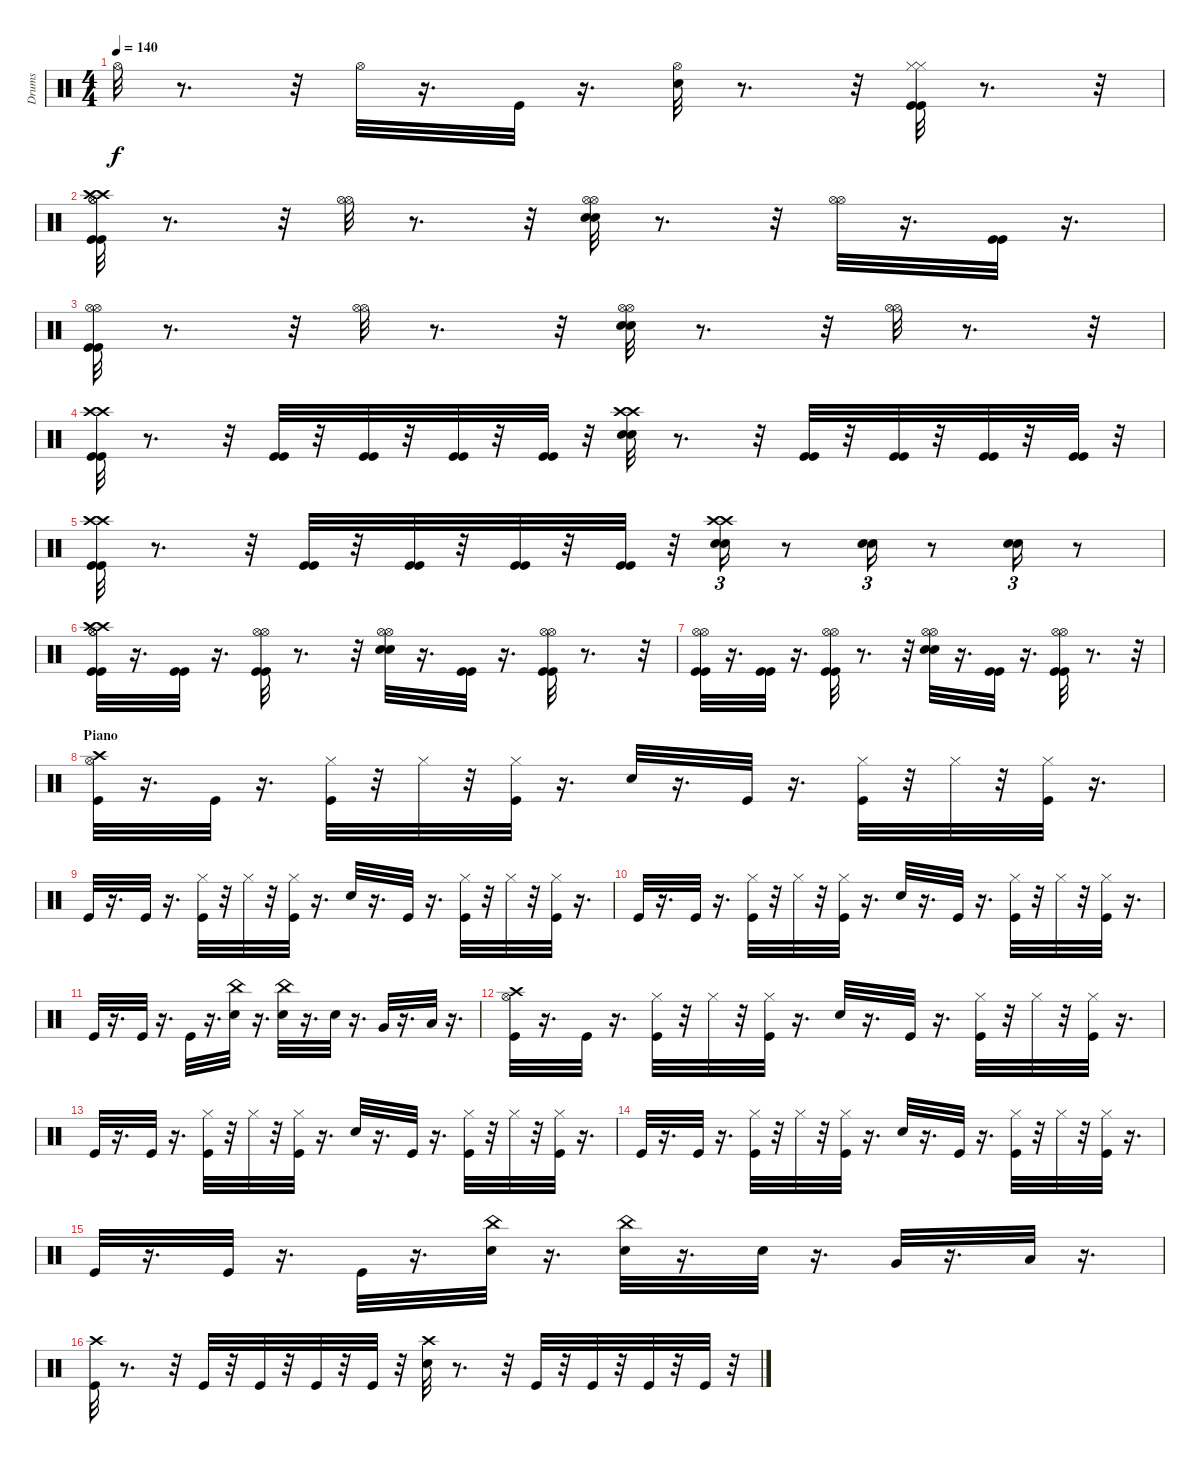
\track ("Drums" "Drums") {instrument percussion}
\staff {score}
\articulation defaults
\ts (4 4)
\tempo 140
\clef neutral
\ks c "Hi-Hat (open)".32{dy f}
r.8{d} r.32 "Hi-Hat (open)".32 r.16{d} "Kick (hit)".32 r.16{d} ("Hi-Hat (open)" "Electric Snare (hit)").32 r.8{d} r.32 ("Kick (hit)" "Hi-Hat (closed)" "Hi-Hat (closed)" "Kick (hit)").32 r.8{d} r.32 |
("Hi-Hat (open)" "Crash high (hit)" "Kick (hit)" "Hi-Hat (open)" "Crash high (hit)" "Kick (hit)").32 r.8{d} r.32 ("Hi-Hat (open)" "Hi-Hat (open)").32 r.8{d} r.32 ("Electric Snare (hit)" "Hi-Hat (open)" "Electric Snare (hit)" "Hi-Hat (open)").32 r.8{d} r.32 ("Hi-Hat (open)" "Hi-Hat (open)").32 r.16{d} ("Kick (hit)" "Kick (hit)").32 r.16{d} |
("Hi-Hat (open)" "Kick (hit)" "Hi-Hat (open)" "Kick (hit)").32 r.8{d} r.32 ("Hi-Hat (open)" "Hi-Hat (open)").32 r.8{d} r.32 ("Electric Snare (hit)" "Hi-Hat (open)" "Electric Snare (hit)" "Hi-Hat (open)").32 r.8{d} r.32 ("Hi-Hat (open)" "Hi-Hat (open)").32 r.8{d} r.32 |
("Crash high (hit)" "Kick (hit)" "Crash high (hit)" "Kick (hit)").32 r.8{d} r.32 ("Kick (hit)" "Kick (hit)").32 r.32 ("Kick (hit)" "Kick (hit)").32 r.32 ("Kick (hit)" "Kick (hit)").32 r.32 ("Kick (hit)" "Kick (hit)").32 r.32 ("Crash high (hit)" "Electric Snare (hit)" "Crash high (hit)" "Electric Snare (hit)").32 r.8{d} r.32 ("Kick (hit)" "Kick (hit)").32 r.32 ("Kick (hit)" "Kick (hit)").32 r.32 ("Kick (hit)" "Kick (hit)").32 r.32 ("Kick (hit)" "Kick (hit)").32 r.32 |
("Crash high (hit)" "Kick (hit)" "Crash high (hit)" "Kick (hit)").32 r.8{d} r.32 ("Kick (hit)" "Kick (hit)").32 r.32 ("Kick (hit)" "Kick (hit)").32 r.32 ("Kick (hit)" "Kick (hit)").32 r.32 ("Kick (hit)" "Kick (hit)").32 r.32 ("Crash high (hit)" "Electric Snare (hit)" "Crash high (hit)" "Electric Snare (hit)").16{tu (3 2)} r.8 ("Electric Snare (hit)" "Electric Snare (hit)").16{tu (3 2)} r.8 ("Electric Snare (hit)" "Electric Snare (hit)").16{tu (3 2)} r.8 |
("Hi-Hat (open)" "Crash high (hit)" "Kick (hit)" "Hi-Hat (open)" "Crash high (hit)" "Kick (hit)").32 r.16{d} ("Kick (hit)" "Kick (hit)").32 r.16{d} ("Hi-Hat (open)" "Kick (hit)" "Hi-Hat (open)" "Kick (hit)").32 r.8{d} r.32 ("Hi-Hat (open)" "Electric Snare (hit)" "Hi-Hat (open)" "Electric Snare (hit)").32 r.16{d} ("Kick (hit)" "Kick (hit)").32 r.16{d} ("Kick (hit)" "Hi-Hat (open)" "Kick (hit)" "Hi-Hat (open)").32 r.8{d} r.32 |
("Hi-Hat (open)" "Kick (hit)" "Hi-Hat (open)" "Kick (hit)").32 r.16{d} ("Kick (hit)" "Kick (hit)").32 r.16{d} ("Kick (hit)" "Hi-Hat (open)" "Kick (hit)" "Hi-Hat (open)").32 r.8{d} r.32 ("Electric Snare (hit)" "Hi-Hat (open)" "Electric Snare (hit)" "Hi-Hat (open)").32 r.16{d} ("Kick (hit)" "Kick (hit)").32 r.16{d} ("Kick (hit)" "Hi-Hat (open)" "Kick (hit)" "Hi-Hat (open)").32 r.8{d} r.32 |
\section ("" "Piano")
("Hi-Hat (open)" "Crash high (hit)" "Kick (hit)").32 r.16{d} "Kick (hit)".32 r.16{d} ("Hi-Hat (closed)" "Kick (hit)").32 r.32 "Hi-Hat (closed)".32 r.32 ("Hi-Hat (closed)" "Kick (hit)").32 r.16{d} "Electric Snare (hit)".32 r.16{d} "Kick (hit)".32 r.16{d} ("Hi-Hat (closed)" "Kick (hit)").32 r.32 "Hi-Hat (closed)".32 r.32 ("Hi-Hat (closed)" "Kick (hit)").32 r.16{d} |
"Kick (hit)".32 r.16{d} "Kick (hit)".32 r.16{d} ("Hi-Hat (closed)" "Kick (hit)").32 r.32 "Hi-Hat (closed)".32 r.32 ("Hi-Hat (closed)" "Kick (hit)").32 r.16{d} "Electric Snare (hit)".32 r.16{d} "Kick (hit)".32 r.16{d} ("Hi-Hat (closed)" "Kick (hit)").32 r.32 "Hi-Hat (closed)".32 r.32 ("Hi-Hat (closed)" "Kick (hit)").32 r.16{d} |
"Kick (hit)".32 r.16{d} "Kick (hit)".32 r.16{d} ("Hi-Hat (closed)" "Kick (hit)").32 r.32 "Hi-Hat (closed)".32 r.32 ("Hi-Hat (closed)" "Kick (hit)").32 r.16{d} "Electric Snare (hit)".32 r.16{d} "Kick (hit)".32 r.16{d} ("Hi-Hat (closed)" "Kick (hit)").32 r.32 "Hi-Hat (closed)".32 r.32 ("Hi-Hat (closed)" "Kick (hit)").32 r.16{d} |
"Kick (hit)".32 r.16{d} "Kick (hit)".32 r.16{d} "Kick (hit)".32 r.16{d} ("China (hit)" "Electric Snare (hit)").32 r.16{d} ("China (hit)" "Electric Snare (hit)").32 r.16{d} "Electric Snare (hit)".32 r.16{d} "Very Low Tom (hit)".32 r.16{d} "Low Floor Tom (hit)".32 r.16{d} |
("Hi-Hat (open)" "Crash high (hit)" "Kick (hit)").32 r.16{d} "Kick (hit)".32 r.16{d} ("Hi-Hat (closed)" "Kick (hit)").32 r.32 "Hi-Hat (closed)".32 r.32 ("Hi-Hat (closed)" "Kick (hit)").32 r.16{d} "Electric Snare (hit)".32 r.16{d} "Kick (hit)".32 r.16{d} ("Hi-Hat (closed)" "Kick (hit)").32 r.32 "Hi-Hat (closed)".32 r.32 ("Hi-Hat (closed)" "Kick (hit)").32 r.16{d} |
"Kick (hit)".32 r.16{d} "Kick (hit)".32 r.16{d} ("Hi-Hat (closed)" "Kick (hit)").32 r.32 "Hi-Hat (closed)".32 r.32 ("Hi-Hat (closed)" "Kick (hit)").32 r.16{d} "Electric Snare (hit)".32 r.16{d} "Kick (hit)".32 r.16{d} ("Hi-Hat (closed)" "Kick (hit)").32 r.32 "Hi-Hat (closed)".32 r.32 ("Hi-Hat (closed)" "Kick (hit)").32 r.16{d} |
"Kick (hit)".32 r.16{d} "Kick (hit)".32 r.16{d} ("Hi-Hat (closed)" "Kick (hit)").32 r.32 "Hi-Hat (closed)".32 r.32 ("Hi-Hat (closed)" "Kick (hit)").32 r.16{d} "Electric Snare (hit)".32 r.16{d} "Kick (hit)".32 r.16{d} ("Hi-Hat (closed)" "Kick (hit)").32 r.32 "Hi-Hat (closed)".32 r.32 ("Hi-Hat (closed)" "Kick (hit)").32 r.16{d} |
"Kick (hit)".32 r.16{d} "Kick (hit)".32 r.16{d} "Kick (hit)".32 r.16{d} ("China (hit)" "Electric Snare (hit)").32 r.16{d} ("China (hit)" "Electric Snare (hit)").32 r.16{d} "Electric Snare (hit)".32 r.16{d} "Very Low Tom (hit)".32 r.16{d} "Low Floor Tom (hit)".32 r.16{d} |
("Crash high (hit)" "Kick (hit)").32 r.8{d} r.32 "Kick (hit)".32 r.32 "Kick (hit)".32 r.32 "Kick (hit)".32 r.32 "Kick (hit)".32 r.32 ("Crash high (hit)" "Electric Snare (hit)").32 r.8{d} r.32 "Kick (hit)".32 r.32 "Kick (hit)".32 r.32 "Kick (hit)".32 r.32 "Kick (hit)".32 r.32
